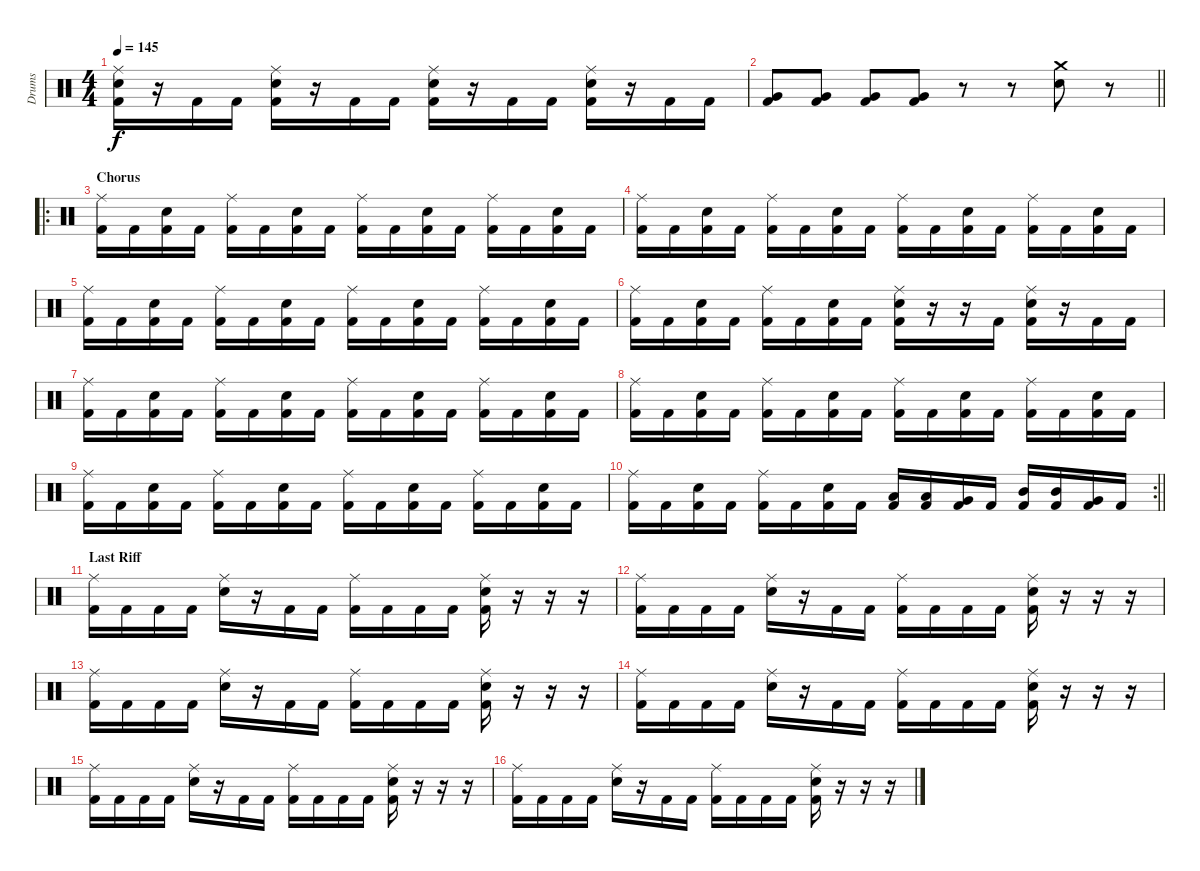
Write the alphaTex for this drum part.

\track ("Drums" "Drums") {instrument percussion}
\staff {score}
\articulation defaults
\ts (4 4)
\tempo 145
\clef neutral
\ks c
("Ride (middle)" "Electric Snare (hit)" "Kick (hit) 2").16{dy f} r.16 "Kick (hit) 2".16 "Kick (hit) 2".16 ("Ride (middle)" "Electric Snare (hit)" "Kick (hit) 2").16 r.16 "Kick (hit) 2".16 "Kick (hit) 2".16 ("Ride (middle)" "Electric Snare (hit)" "Kick (hit) 2").16 r.16 "Kick (hit) 2".16 "Kick (hit) 2".16 ("Ride (middle)" "Electric Snare (hit)" "Kick (hit) 2").16 r.16 "Kick (hit) 2".16 "Kick (hit) 2".16 |
\barLineRight lightlight
("Very Low Tom (hit)" "Kick (hit) 2").8 ("Very Low Tom (hit)" "Kick (hit) 2").8 ("Very Low Tom (hit)" "Kick (hit) 2").8 ("Very Low Tom (hit)" "Kick (hit) 2").8 r.8 r.8 ("Crash medium (hit)" "Electric Snare (hit)").8 r.8 |
\ro
\section ("" "Chorus")
("Ride (middle)" "Kick (hit) 2").16 "Kick (hit) 2".16 ("Electric Snare (hit)" "Kick (hit) 2").16 "Kick (hit) 2".16 ("Ride (middle)" "Kick (hit) 2").16 "Kick (hit) 2".16 ("Electric Snare (hit)" "Kick (hit) 2").16 "Kick (hit) 2".16 ("Ride (middle)" "Kick (hit) 2").16 "Kick (hit) 2".16 ("Electric Snare (hit)" "Kick (hit) 2").16 "Kick (hit) 2".16 ("Ride (middle)" "Kick (hit) 2").16 "Kick (hit) 2".16 ("Electric Snare (hit)" "Kick (hit) 2").16 "Kick (hit) 2".16 |
("Ride (middle)" "Kick (hit) 2").16 "Kick (hit) 2".16 ("Electric Snare (hit)" "Kick (hit) 2").16 "Kick (hit) 2".16 ("Ride (middle)" "Kick (hit) 2").16 "Kick (hit) 2".16 ("Electric Snare (hit)" "Kick (hit) 2").16 "Kick (hit) 2".16 ("Ride (middle)" "Kick (hit) 2").16 "Kick (hit) 2".16 ("Electric Snare (hit)" "Kick (hit) 2").16 "Kick (hit) 2".16 ("Ride (middle)" "Kick (hit) 2").16 "Kick (hit) 2".16 ("Electric Snare (hit)" "Kick (hit) 2").16 "Kick (hit) 2".16 |
("Ride (middle)" "Kick (hit) 2").16 "Kick (hit) 2".16 ("Electric Snare (hit)" "Kick (hit) 2").16 "Kick (hit) 2".16 ("Ride (middle)" "Kick (hit) 2").16 "Kick (hit) 2".16 ("Electric Snare (hit)" "Kick (hit) 2").16 "Kick (hit) 2".16 ("Ride (middle)" "Kick (hit) 2").16 "Kick (hit) 2".16 ("Electric Snare (hit)" "Kick (hit) 2").16 "Kick (hit) 2".16 ("Ride (middle)" "Kick (hit) 2").16 "Kick (hit) 2".16 ("Electric Snare (hit)" "Kick (hit) 2").16 "Kick (hit) 2".16 |
("Ride (middle)" "Kick (hit) 2").16 "Kick (hit) 2".16 ("Electric Snare (hit)" "Kick (hit) 2").16 "Kick (hit) 2".16 ("Ride (middle)" "Kick (hit) 2").16 "Kick (hit) 2".16 ("Electric Snare (hit)" "Kick (hit) 2").16 "Kick (hit) 2".16 ("Ride (middle)" "Electric Snare (hit)" "Kick (hit) 2").16 r.16 r.16 "Kick (hit) 2".16 ("Ride (middle)" "Electric Snare (hit)" "Kick (hit) 2").16 r.16 "Kick (hit) 2".16 "Kick (hit) 2".16 |
("Ride (middle)" "Kick (hit) 2").16 "Kick (hit) 2".16 ("Electric Snare (hit)" "Kick (hit) 2").16 "Kick (hit) 2".16 ("Ride (middle)" "Kick (hit) 2").16 "Kick (hit) 2".16 ("Electric Snare (hit)" "Kick (hit) 2").16 "Kick (hit) 2".16 ("Ride (middle)" "Kick (hit) 2").16 "Kick (hit) 2".16 ("Electric Snare (hit)" "Kick (hit) 2").16 "Kick (hit) 2".16 ("Ride (middle)" "Kick (hit) 2").16 "Kick (hit) 2".16 ("Electric Snare (hit)" "Kick (hit) 2").16 "Kick (hit) 2".16 |
("Ride (middle)" "Kick (hit) 2").16 "Kick (hit) 2".16 ("Electric Snare (hit)" "Kick (hit) 2").16 "Kick (hit) 2".16 ("Ride (middle)" "Kick (hit) 2").16 "Kick (hit) 2".16 ("Electric Snare (hit)" "Kick (hit) 2").16 "Kick (hit) 2".16 ("Ride (middle)" "Kick (hit) 2").16 "Kick (hit) 2".16 ("Electric Snare (hit)" "Kick (hit) 2").16 "Kick (hit) 2".16 ("Ride (middle)" "Kick (hit) 2").16 "Kick (hit) 2".16 ("Electric Snare (hit)" "Kick (hit) 2").16 "Kick (hit) 2".16 |
("Ride (middle)" "Kick (hit) 2").16 "Kick (hit) 2".16 ("Electric Snare (hit)" "Kick (hit) 2").16 "Kick (hit) 2".16 ("Ride (middle)" "Kick (hit) 2").16 "Kick (hit) 2".16 ("Electric Snare (hit)" "Kick (hit) 2").16 "Kick (hit) 2".16 ("Ride (middle)" "Kick (hit) 2").16 "Kick (hit) 2".16 ("Electric Snare (hit)" "Kick (hit) 2").16 "Kick (hit) 2".16 ("Ride (middle)" "Kick (hit) 2").16 "Kick (hit) 2".16 ("Electric Snare (hit)" "Kick (hit) 2").16 "Kick (hit) 2".16 |
\rc 2
\barLineRight lightlight
("Ride (middle)" "Kick (hit) 2").16 "Kick (hit) 2".16 ("Electric Snare (hit)" "Kick (hit) 2").16 "Kick (hit) 2".16 ("Ride (middle)" "Kick (hit) 2").16 "Kick (hit) 2".16 ("Electric Snare (hit)" "Kick (hit) 2").16 "Kick (hit) 2".16 ("Low Floor Tom (hit)" "Kick (hit) 2").16 ("Low Floor Tom (hit)" "Kick (hit) 2").16 ("Very Low Tom (hit)" "Kick (hit) 2").16 "Kick (hit) 2".16 ("Mid Tom (hit)" "Kick (hit) 2").16 ("Mid Tom (hit)" "Kick (hit) 2").16 ("Very Low Tom (hit)" "Kick (hit) 2").16 "Kick (hit) 2".16 |
\section ("" "Last Riff")
("Ride (middle)" "Kick (hit) 2").16 "Kick (hit) 2".16 "Kick (hit) 2".16 "Kick (hit) 2".16 ("Ride (middle)" "Electric Snare (hit)").16 r.16 "Kick (hit) 2".16 "Kick (hit) 2".16 ("Ride (middle)" "Kick (hit) 2").16 "Kick (hit) 2".16 "Kick (hit) 2".16 "Kick (hit) 2".16 ("Ride (middle)" "Electric Snare (hit)" "Kick (hit) 2").16 r.16 r.16 r.16 |
("Ride (middle)" "Kick (hit) 2").16 "Kick (hit) 2".16 "Kick (hit) 2".16 "Kick (hit) 2".16 ("Ride (middle)" "Electric Snare (hit)").16 r.16 "Kick (hit) 2".16 "Kick (hit) 2".16 ("Ride (middle)" "Kick (hit) 2").16 "Kick (hit) 2".16 "Kick (hit) 2".16 "Kick (hit) 2".16 ("Ride (middle)" "Electric Snare (hit)" "Kick (hit) 2").16 r.16 r.16 r.16 |
("Ride (middle)" "Kick (hit) 2").16 "Kick (hit) 2".16 "Kick (hit) 2".16 "Kick (hit) 2".16 ("Ride (middle)" "Electric Snare (hit)").16 r.16 "Kick (hit) 2".16 "Kick (hit) 2".16 ("Ride (middle)" "Kick (hit) 2").16 "Kick (hit) 2".16 "Kick (hit) 2".16 "Kick (hit) 2".16 ("Ride (middle)" "Electric Snare (hit)" "Kick (hit) 2").16 r.16 r.16 r.16 |
("Ride (middle)" "Kick (hit) 2").16 "Kick (hit) 2".16 "Kick (hit) 2".16 "Kick (hit) 2".16 ("Ride (middle)" "Electric Snare (hit)").16 r.16 "Kick (hit) 2".16 "Kick (hit) 2".16 ("Ride (middle)" "Kick (hit) 2").16 "Kick (hit) 2".16 "Kick (hit) 2".16 "Kick (hit) 2".16 ("Ride (middle)" "Electric Snare (hit)" "Kick (hit) 2").16 r.16 r.16 r.16 |
("Ride (middle)" "Kick (hit) 2").16 "Kick (hit) 2".16 "Kick (hit) 2".16 "Kick (hit) 2".16 ("Ride (middle)" "Electric Snare (hit)").16 r.16 "Kick (hit) 2".16 "Kick (hit) 2".16 ("Ride (middle)" "Kick (hit) 2").16 "Kick (hit) 2".16 "Kick (hit) 2".16 "Kick (hit) 2".16 ("Ride (middle)" "Electric Snare (hit)" "Kick (hit) 2").16 r.16 r.16 r.16 |
("Ride (middle)" "Kick (hit) 2").16 "Kick (hit) 2".16 "Kick (hit) 2".16 "Kick (hit) 2".16 ("Ride (middle)" "Electric Snare (hit)").16 r.16 "Kick (hit) 2".16 "Kick (hit) 2".16 ("Ride (middle)" "Kick (hit) 2").16 "Kick (hit) 2".16 "Kick (hit) 2".16 "Kick (hit) 2".16 ("Ride (middle)" "Electric Snare (hit)" "Kick (hit) 2").16 r.16 r.16 r.16
